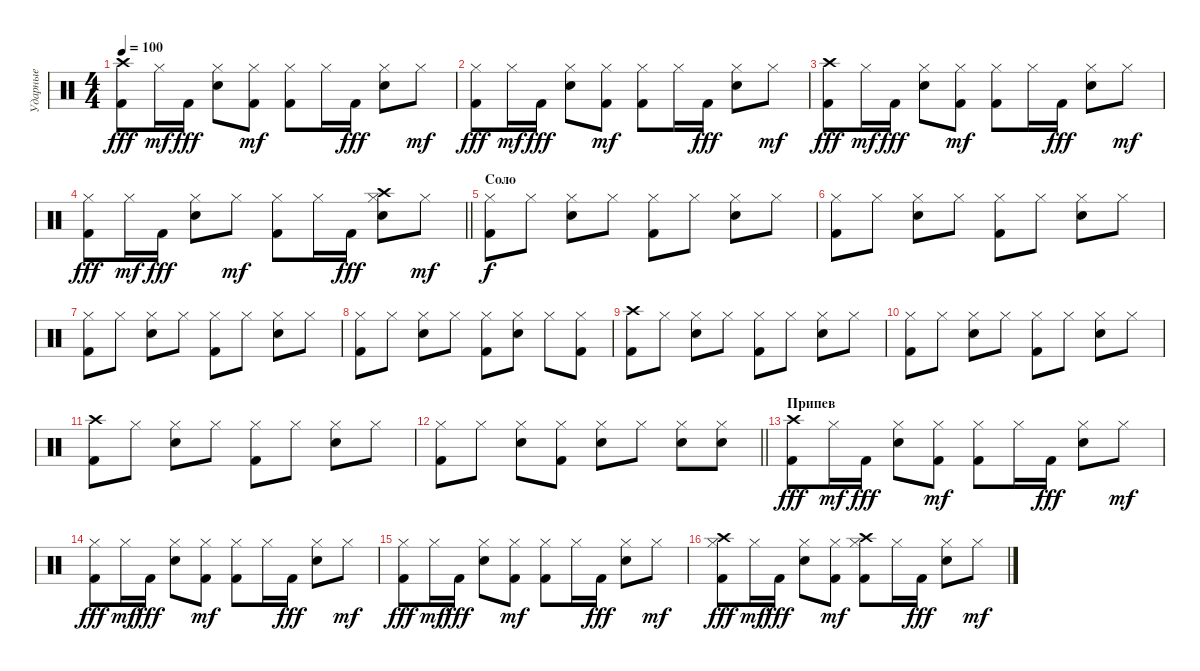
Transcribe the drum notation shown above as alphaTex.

\track ("Ударные" "Ударные") {instrument percussion}
\staff {score}
\articulation defaults
\ts (4 4)
\tempo 100
\clef neutral
\ks c
("Kick (hit) 2" "Crash high (hit)").8{dy fff} "Hi-Hat (closed)".16{dy mf} "Kick (hit) 2".16{dy fff} ("Hi-Hat (closed)" "Electric Snare (hit)").8 ("Kick (hit) 2" "Hi-Hat (closed)").8{dy mf} ("Kick (hit) 2" "Hi-Hat (closed)").8 "Hi-Hat (closed)".16 "Kick (hit) 2".16{dy fff} ("Hi-Hat (closed)" "Electric Snare (hit)").8 "Hi-Hat (closed)".8{dy mf} |
("Kick (hit) 2" "Hi-Hat (closed)").8{dy fff} "Hi-Hat (closed)".16{dy mf} "Kick (hit) 2".16{dy fff} ("Hi-Hat (closed)" "Electric Snare (hit)").8 ("Kick (hit) 2" "Hi-Hat (closed)").8{dy mf} ("Kick (hit) 2" "Hi-Hat (closed)").8 "Hi-Hat (closed)".16 "Kick (hit) 2".16{dy fff} ("Hi-Hat (closed)" "Electric Snare (hit)").8 "Hi-Hat (closed)".8{dy mf} |
("Kick (hit) 2" "Crash high (hit)").8{dy fff} "Hi-Hat (closed)".16{dy mf} "Kick (hit) 2".16{dy fff} ("Hi-Hat (closed)" "Electric Snare (hit)").8 ("Kick (hit) 2" "Hi-Hat (closed)").8{dy mf} ("Kick (hit) 2" "Hi-Hat (closed)").8 "Hi-Hat (closed)".16 "Kick (hit) 2".16{dy fff} ("Hi-Hat (closed)" "Electric Snare (hit)").8 "Hi-Hat (closed)".8{dy mf} |
\barLineRight lightlight
("Kick (hit) 2" "Hi-Hat (closed)").8{dy fff} "Hi-Hat (closed)".16{dy mf} "Kick (hit) 2".16{dy fff} ("Hi-Hat (closed)" "Electric Snare (hit)").8 "Hi-Hat (closed)".8{dy mf} ("Kick (hit) 2" "Hi-Hat (closed)").8 "Hi-Hat (closed)".16 "Kick (hit) 2".16{dy fff} ("Crash high (hit)" "Hi-Hat (closed)" "Electric Snare (hit)").8 "Hi-Hat (closed)".8{dy mf} |
\section ("" "Соло")
("Hi-Hat (closed)" "Kick (hit) 2").8{dy f} "Hi-Hat (closed)".8 ("Hi-Hat (closed)" "Electric Snare (hit)").8 "Hi-Hat (closed)".8 ("Hi-Hat (closed)" "Kick (hit) 2").8 "Hi-Hat (closed)".8 ("Hi-Hat (closed)" "Electric Snare (hit)").8 "Hi-Hat (closed)".8 |
("Hi-Hat (closed)" "Kick (hit) 2").8 "Hi-Hat (closed)".8 ("Hi-Hat (closed)" "Electric Snare (hit)").8 "Hi-Hat (closed)".8 ("Hi-Hat (closed)" "Kick (hit) 2").8 "Hi-Hat (closed)".8 ("Hi-Hat (closed)" "Electric Snare (hit)").8 "Hi-Hat (closed)".8 |
("Hi-Hat (closed)" "Kick (hit) 2").8 "Hi-Hat (closed)".8 ("Hi-Hat (closed)" "Electric Snare (hit)").8 "Hi-Hat (closed)".8 ("Hi-Hat (closed)" "Kick (hit) 2").8 "Hi-Hat (closed)".8 ("Hi-Hat (closed)" "Electric Snare (hit)").8 "Hi-Hat (closed)".8 |
("Hi-Hat (closed)" "Kick (hit) 2").8 "Hi-Hat (closed)".8 ("Hi-Hat (closed)" "Electric Snare (hit)").8 "Hi-Hat (closed)".8 ("Hi-Hat (closed)" "Kick (hit) 2").8 ("Hi-Hat (closed)" "Electric Snare (hit)").8 "Hi-Hat (closed)".8 ("Hi-Hat (closed)" "Kick (hit) 2").8 |
("Crash high (hit)" "Kick (hit) 2").8 "Hi-Hat (closed)".8 ("Hi-Hat (closed)" "Electric Snare (hit)").8 "Hi-Hat (closed)".8 ("Hi-Hat (closed)" "Kick (hit) 2").8 "Hi-Hat (closed)".8 ("Hi-Hat (closed)" "Electric Snare (hit)").8 "Hi-Hat (closed)".8 |
("Hi-Hat (closed)" "Kick (hit) 2").8 "Hi-Hat (closed)".8 ("Hi-Hat (closed)" "Electric Snare (hit)").8 "Hi-Hat (closed)".8 ("Hi-Hat (closed)" "Kick (hit) 2").8 "Hi-Hat (closed)".8 ("Hi-Hat (closed)" "Electric Snare (hit)").8 "Hi-Hat (closed)".8 |
("Crash high (hit)" "Kick (hit) 2").8 "Hi-Hat (closed)".8 ("Hi-Hat (closed)" "Electric Snare (hit)").8 "Hi-Hat (closed)".8 ("Hi-Hat (closed)" "Kick (hit) 2").8 "Hi-Hat (closed)".8 ("Hi-Hat (closed)" "Electric Snare (hit)").8 "Hi-Hat (closed)".8 |
\barLineRight lightlight
("Hi-Hat (closed)" "Kick (hit) 2").8 "Hi-Hat (closed)".8 ("Hi-Hat (closed)" "Electric Snare (hit)").8 ("Hi-Hat (closed)" "Kick (hit) 2").8 ("Hi-Hat (closed)" "Electric Snare (hit)").8 "Hi-Hat (closed)".8 ("Hi-Hat (closed)" "Electric Snare (hit)").8 ("Hi-Hat (closed)" "Electric Snare (hit)").8 |
\section ("" "Припев")
("Kick (hit) 2" "Crash high (hit)").8{dy fff} "Hi-Hat (closed)".16{dy mf} "Kick (hit) 2".16{dy fff} ("Hi-Hat (closed)" "Electric Snare (hit)").8 ("Kick (hit) 2" "Hi-Hat (closed)").8{dy mf} ("Kick (hit) 2" "Hi-Hat (closed)").8 "Hi-Hat (closed)".16 "Kick (hit) 2".16{dy fff} ("Hi-Hat (closed)" "Electric Snare (hit)").8 "Hi-Hat (closed)".8{dy mf} |
("Kick (hit) 2" "Hi-Hat (closed)").8{dy fff} "Hi-Hat (closed)".16{dy mf} "Kick (hit) 2".16{dy fff} ("Hi-Hat (closed)" "Electric Snare (hit)").8 ("Kick (hit) 2" "Hi-Hat (closed)").8{dy mf} ("Kick (hit) 2" "Hi-Hat (closed)").8 "Hi-Hat (closed)".16 "Kick (hit) 2".16{dy fff} ("Hi-Hat (closed)" "Electric Snare (hit)").8 "Hi-Hat (closed)".8{dy mf} |
("Kick (hit) 2" "Hi-Hat (closed)").8{dy fff} "Hi-Hat (closed)".16{dy mf} "Kick (hit) 2".16{dy fff} ("Hi-Hat (closed)" "Electric Snare (hit)").8 ("Kick (hit) 2" "Hi-Hat (closed)").8{dy mf} ("Kick (hit) 2" "Hi-Hat (closed)").8 "Hi-Hat (closed)".16 "Kick (hit) 2".16{dy fff} ("Hi-Hat (closed)" "Electric Snare (hit)").8 "Hi-Hat (closed)".8{dy mf} |
("Kick (hit) 2" "Crash high (hit)" "Hi-Hat (closed)").8{dy fff} "Hi-Hat (closed)".16{dy mf} "Kick (hit) 2".16{dy fff} ("Hi-Hat (closed)" "Electric Snare (hit)").8 ("Kick (hit) 2" "Hi-Hat (closed)").8{dy mf} ("Kick (hit) 2" "Crash high (hit)" "Hi-Hat (closed)").8 "Hi-Hat (closed)".16 "Kick (hit) 2".16{dy fff} ("Hi-Hat (closed)" "Electric Snare (hit)").8 "Hi-Hat (closed)".8{dy mf}
